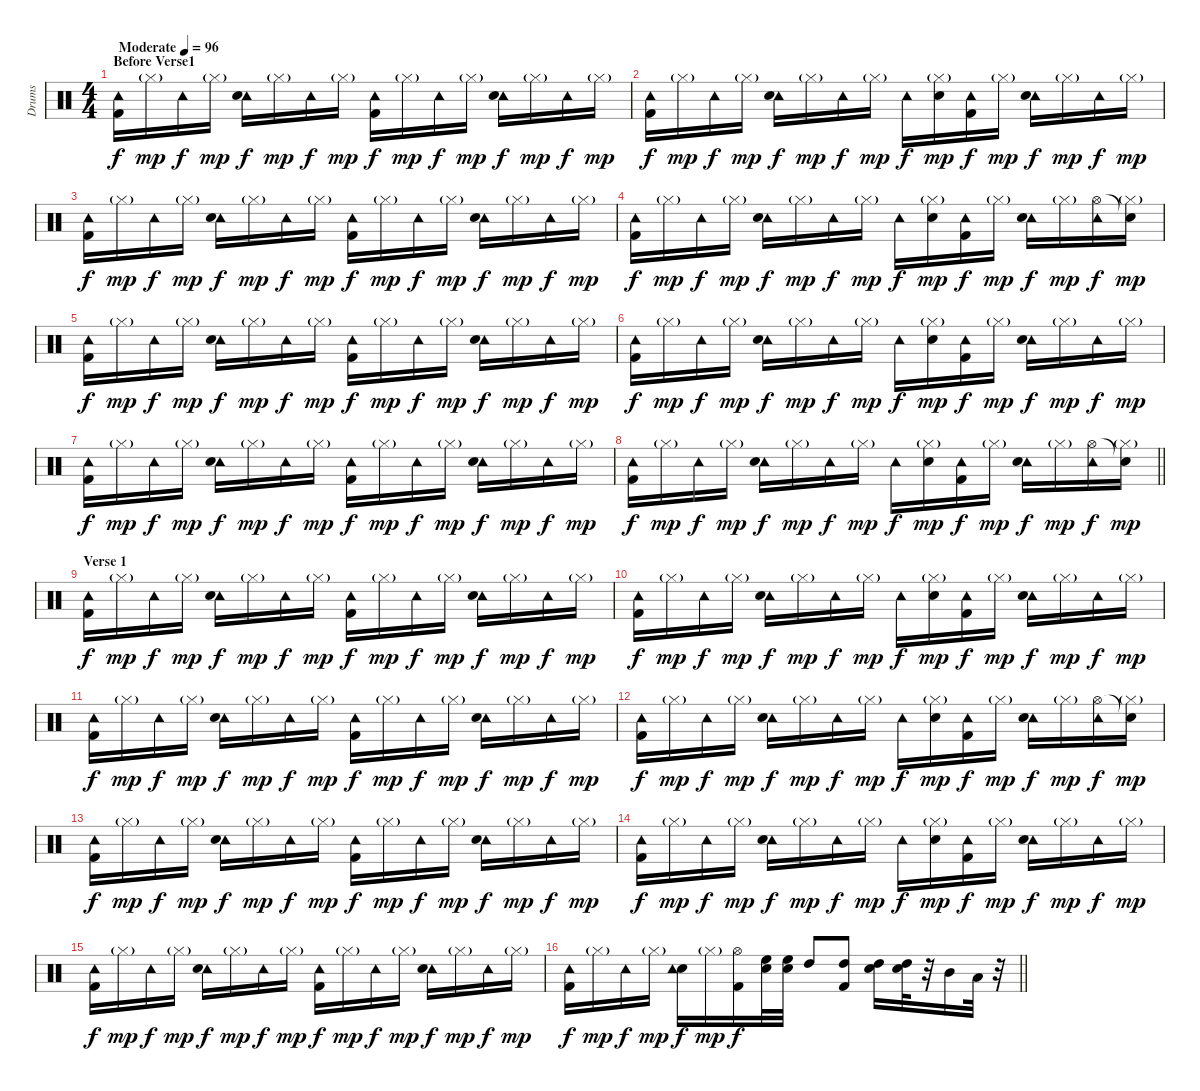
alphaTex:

\track ("Drums" "Drums") {instrument percussion}
\staff {score}
\articulation defaults
\ts (4 4)
\section ("" "Before Verse1")
\tempo (96 "Moderate")
\clef neutral
\ks c
("Tambourine (hit)" "Kick (hit) 2").16{dy f} "Hi-Hat (closed)"{g}.16{dy mp} "Tambourine (hit)".16{dy f} "Hi-Hat (closed)"{g}.16{dy mp} ("Tambourine (hit)" "Snare (hit) 2").16{dy f} "Hi-Hat (closed)"{g}.16{dy mp} "Tambourine (hit)".16{dy f} "Hi-Hat (closed)"{g}.16{dy mp} ("Tambourine (hit)" "Kick (hit) 2").16{dy f} "Hi-Hat (closed)"{g}.16{dy mp} "Tambourine (hit)".16{dy f} "Hi-Hat (closed)"{g}.16{dy mp} ("Tambourine (hit)" "Snare (hit) 2").16{dy f} "Hi-Hat (closed)"{g}.16{dy mp} "Tambourine (hit)".16{dy f} "Hi-Hat (closed)"{g}.16{dy mp} |
("Tambourine (hit)" "Kick (hit) 2").16{dy f} "Hi-Hat (closed)"{g}.16{dy mp} "Tambourine (hit)".16{dy f} "Hi-Hat (closed)"{g}.16{dy mp} ("Tambourine (hit)" "Snare (hit) 2").16{dy f} "Hi-Hat (closed)"{g}.16{dy mp} "Tambourine (hit)".16{dy f} "Hi-Hat (closed)"{g}.16{dy mp} "Tambourine (hit)".16{dy f} ("Hi-Hat (closed)"{g} "Snare (hit) 2").16{dy mp} ("Tambourine (hit)" "Kick (hit) 2").16{dy f} "Hi-Hat (closed)"{g}.16{dy mp} ("Tambourine (hit)" "Snare (hit) 2").16{dy f} "Hi-Hat (closed)"{g}.16{dy mp} "Tambourine (hit)".16{dy f} "Hi-Hat (closed)"{g}.16{dy mp} |
("Tambourine (hit)" "Kick (hit) 2").16{dy f} "Hi-Hat (closed)"{g}.16{dy mp} "Tambourine (hit)".16{dy f} "Hi-Hat (closed)"{g}.16{dy mp} ("Tambourine (hit)" "Snare (hit) 2").16{dy f} "Hi-Hat (closed)"{g}.16{dy mp} "Tambourine (hit)".16{dy f} "Hi-Hat (closed)"{g}.16{dy mp} ("Tambourine (hit)" "Kick (hit) 2").16{dy f} "Hi-Hat (closed)"{g}.16{dy mp} "Tambourine (hit)".16{dy f} "Hi-Hat (closed)"{g}.16{dy mp} ("Tambourine (hit)" "Snare (hit) 2").16{dy f} "Hi-Hat (closed)"{g}.16{dy mp} "Tambourine (hit)".16{dy f} "Hi-Hat (closed)"{g}.16{dy mp} |
("Tambourine (hit)" "Kick (hit) 2").16{dy f} "Hi-Hat (closed)"{g}.16{dy mp} "Tambourine (hit)".16{dy f} "Hi-Hat (closed)"{g}.16{dy mp} ("Tambourine (hit)" "Snare (hit) 2").16{dy f} "Hi-Hat (closed)"{g}.16{dy mp} "Tambourine (hit)".16{dy f} "Hi-Hat (closed)"{g}.16{dy mp} "Tambourine (hit)".16{dy f} ("Hi-Hat (closed)"{g} "Snare (hit) 2").16{dy mp} ("Tambourine (hit)" "Kick (hit) 2").16{dy f} "Hi-Hat (closed)"{g}.16{dy mp} ("Tambourine (hit)" "Snare (hit) 2").16{dy f} "Hi-Hat (closed)"{g}.16{dy mp} ("Tambourine (hit)" "Hi-Hat (open)").16{dy f} ("Hi-Hat (closed)"{g} "Snare (hit)"{t}).16{dy mp} |
("Tambourine (hit)" "Kick (hit) 2").16{dy f} "Hi-Hat (closed)"{g}.16{dy mp} "Tambourine (hit)".16{dy f} "Hi-Hat (closed)"{g}.16{dy mp} ("Tambourine (hit)" "Snare (hit) 2").16{dy f} "Hi-Hat (closed)"{g}.16{dy mp} "Tambourine (hit)".16{dy f} "Hi-Hat (closed)"{g}.16{dy mp} ("Tambourine (hit)" "Kick (hit) 2").16{dy f} "Hi-Hat (closed)"{g}.16{dy mp} "Tambourine (hit)".16{dy f} "Hi-Hat (closed)"{g}.16{dy mp} ("Tambourine (hit)" "Snare (hit) 2").16{dy f} "Hi-Hat (closed)"{g}.16{dy mp} "Tambourine (hit)".16{dy f} "Hi-Hat (closed)"{g}.16{dy mp} |
("Tambourine (hit)" "Kick (hit) 2").16{dy f} "Hi-Hat (closed)"{g}.16{dy mp} "Tambourine (hit)".16{dy f} "Hi-Hat (closed)"{g}.16{dy mp} ("Tambourine (hit)" "Snare (hit) 2").16{dy f} "Hi-Hat (closed)"{g}.16{dy mp} "Tambourine (hit)".16{dy f} "Hi-Hat (closed)"{g}.16{dy mp} "Tambourine (hit)".16{dy f} ("Hi-Hat (closed)"{g} "Snare (hit) 2").16{dy mp} ("Tambourine (hit)" "Kick (hit) 2").16{dy f} "Hi-Hat (closed)"{g}.16{dy mp} ("Tambourine (hit)" "Snare (hit) 2").16{dy f} "Hi-Hat (closed)"{g}.16{dy mp} "Tambourine (hit)".16{dy f} "Hi-Hat (closed)"{g}.16{dy mp} |
("Tambourine (hit)" "Kick (hit) 2").16{dy f} "Hi-Hat (closed)"{g}.16{dy mp} "Tambourine (hit)".16{dy f} "Hi-Hat (closed)"{g}.16{dy mp} ("Tambourine (hit)" "Snare (hit) 2").16{dy f} "Hi-Hat (closed)"{g}.16{dy mp} "Tambourine (hit)".16{dy f} "Hi-Hat (closed)"{g}.16{dy mp} ("Tambourine (hit)" "Kick (hit) 2").16{dy f} "Hi-Hat (closed)"{g}.16{dy mp} "Tambourine (hit)".16{dy f} "Hi-Hat (closed)"{g}.16{dy mp} ("Tambourine (hit)" "Snare (hit) 2").16{dy f} "Hi-Hat (closed)"{g}.16{dy mp} "Tambourine (hit)".16{dy f} "Hi-Hat (closed)"{g}.16{dy mp} |
\barLineRight lightlight
("Tambourine (hit)" "Kick (hit) 2").16{dy f} "Hi-Hat (closed)"{g}.16{dy mp} "Tambourine (hit)".16{dy f} "Hi-Hat (closed)"{g}.16{dy mp} ("Tambourine (hit)" "Snare (hit) 2").16{dy f} "Hi-Hat (closed)"{g}.16{dy mp} "Tambourine (hit)".16{dy f} "Hi-Hat (closed)"{g}.16{dy mp} "Tambourine (hit)".16{dy f} ("Hi-Hat (closed)"{g} "Snare (hit) 2").16{dy mp} ("Tambourine (hit)" "Kick (hit) 2").16{dy f} "Hi-Hat (closed)"{g}.16{dy mp} ("Tambourine (hit)" "Snare (hit) 2").16{dy f} "Hi-Hat (closed)"{g}.16{dy mp} ("Tambourine (hit)" "Hi-Hat (open)").16{dy f} ("Hi-Hat (closed)"{g} "Snare (hit)"{t}).16{dy mp} |
\section ("" "Verse 1")
("Tambourine (hit)" "Kick (hit) 2").16{dy f} "Hi-Hat (closed)"{g}.16{dy mp} "Tambourine (hit)".16{dy f} "Hi-Hat (closed)"{g}.16{dy mp} ("Tambourine (hit)" "Snare (hit) 2").16{dy f} "Hi-Hat (closed)"{g}.16{dy mp} "Tambourine (hit)".16{dy f} "Hi-Hat (closed)"{g}.16{dy mp} ("Tambourine (hit)" "Kick (hit) 2").16{dy f} "Hi-Hat (closed)"{g}.16{dy mp} "Tambourine (hit)".16{dy f} "Hi-Hat (closed)"{g}.16{dy mp} ("Tambourine (hit)" "Snare (hit) 2").16{dy f} "Hi-Hat (closed)"{g}.16{dy mp} "Tambourine (hit)".16{dy f} "Hi-Hat (closed)"{g}.16{dy mp} |
("Tambourine (hit)" "Kick (hit) 2").16{dy f} "Hi-Hat (closed)"{g}.16{dy mp} "Tambourine (hit)".16{dy f} "Hi-Hat (closed)"{g}.16{dy mp} ("Tambourine (hit)" "Snare (hit) 2").16{dy f} "Hi-Hat (closed)"{g}.16{dy mp} "Tambourine (hit)".16{dy f} "Hi-Hat (closed)"{g}.16{dy mp} "Tambourine (hit)".16{dy f} ("Hi-Hat (closed)"{g} "Snare (hit) 2").16{dy mp} ("Tambourine (hit)" "Kick (hit) 2").16{dy f} "Hi-Hat (closed)"{g}.16{dy mp} ("Tambourine (hit)" "Snare (hit) 2").16{dy f} "Hi-Hat (closed)"{g}.16{dy mp} "Tambourine (hit)".16{dy f} "Hi-Hat (closed)"{g}.16{dy mp} |
("Tambourine (hit)" "Kick (hit) 2").16{dy f} "Hi-Hat (closed)"{g}.16{dy mp} "Tambourine (hit)".16{dy f} "Hi-Hat (closed)"{g}.16{dy mp} ("Tambourine (hit)" "Snare (hit) 2").16{dy f} "Hi-Hat (closed)"{g}.16{dy mp} "Tambourine (hit)".16{dy f} "Hi-Hat (closed)"{g}.16{dy mp} ("Tambourine (hit)" "Kick (hit) 2").16{dy f} "Hi-Hat (closed)"{g}.16{dy mp} "Tambourine (hit)".16{dy f} "Hi-Hat (closed)"{g}.16{dy mp} ("Tambourine (hit)" "Snare (hit) 2").16{dy f} "Hi-Hat (closed)"{g}.16{dy mp} "Tambourine (hit)".16{dy f} "Hi-Hat (closed)"{g}.16{dy mp} |
("Tambourine (hit)" "Kick (hit) 2").16{dy f} "Hi-Hat (closed)"{g}.16{dy mp} "Tambourine (hit)".16{dy f} "Hi-Hat (closed)"{g}.16{dy mp} ("Tambourine (hit)" "Snare (hit) 2").16{dy f} "Hi-Hat (closed)"{g}.16{dy mp} "Tambourine (hit)".16{dy f} "Hi-Hat (closed)"{g}.16{dy mp} "Tambourine (hit)".16{dy f} ("Hi-Hat (closed)"{g} "Snare (hit) 2").16{dy mp} ("Tambourine (hit)" "Kick (hit) 2").16{dy f} "Hi-Hat (closed)"{g}.16{dy mp} ("Tambourine (hit)" "Snare (hit) 2").16{dy f} "Hi-Hat (closed)"{g}.16{dy mp} ("Tambourine (hit)" "Hi-Hat (open)").16{dy f} ("Hi-Hat (closed)"{g} "Snare (hit)"{t}).16{dy mp} |
("Tambourine (hit)" "Kick (hit) 2").16{dy f} "Hi-Hat (closed)"{g}.16{dy mp} "Tambourine (hit)".16{dy f} "Hi-Hat (closed)"{g}.16{dy mp} ("Tambourine (hit)" "Snare (hit) 2").16{dy f} "Hi-Hat (closed)"{g}.16{dy mp} "Tambourine (hit)".16{dy f} "Hi-Hat (closed)"{g}.16{dy mp} ("Tambourine (hit)" "Kick (hit) 2").16{dy f} "Hi-Hat (closed)"{g}.16{dy mp} "Tambourine (hit)".16{dy f} "Hi-Hat (closed)"{g}.16{dy mp} ("Tambourine (hit)" "Snare (hit) 2").16{dy f} "Hi-Hat (closed)"{g}.16{dy mp} "Tambourine (hit)".16{dy f} "Hi-Hat (closed)"{g}.16{dy mp} |
("Tambourine (hit)" "Kick (hit) 2").16{dy f} "Hi-Hat (closed)"{g}.16{dy mp} "Tambourine (hit)".16{dy f} "Hi-Hat (closed)"{g}.16{dy mp} ("Tambourine (hit)" "Snare (hit) 2").16{dy f} "Hi-Hat (closed)"{g}.16{dy mp} "Tambourine (hit)".16{dy f} "Hi-Hat (closed)"{g}.16{dy mp} "Tambourine (hit)".16{dy f} ("Hi-Hat (closed)"{g} "Snare (hit) 2").16{dy mp} ("Tambourine (hit)" "Kick (hit) 2").16{dy f} "Hi-Hat (closed)"{g}.16{dy mp} ("Tambourine (hit)" "Snare (hit) 2").16{dy f} "Hi-Hat (closed)"{g}.16{dy mp} "Tambourine (hit)".16{dy f} "Hi-Hat (closed)"{g}.16{dy mp} |
("Tambourine (hit)" "Kick (hit) 2").16{dy f} "Hi-Hat (closed)"{g}.16{dy mp} "Tambourine (hit)".16{dy f} "Hi-Hat (closed)"{g}.16{dy mp} ("Tambourine (hit)" "Snare (hit) 2").16{dy f} "Hi-Hat (closed)"{g}.16{dy mp} "Tambourine (hit)".16{dy f} "Hi-Hat (closed)"{g}.16{dy mp} ("Tambourine (hit)" "Kick (hit) 2").16{dy f} "Hi-Hat (closed)"{g}.16{dy mp} "Tambourine (hit)".16{dy f} "Hi-Hat (closed)"{g}.16{dy mp} ("Tambourine (hit)" "Snare (hit) 2").16{dy f} "Hi-Hat (closed)"{g}.16{dy mp} "Tambourine (hit)".16{dy f} "Hi-Hat (closed)"{g}.16{dy mp} |
\barLineRight lightlight
("Kick (hit) 2" "Tambourine (hit)").16{dy f} "Hi-Hat (closed)"{g}.16{dy mp} "Tambourine (hit)".16{dy f} "Hi-Hat (closed)"{g}.16{dy mp} ("Snare (hit) 2" "Tambourine (hit)").16{dy f} "Hi-Hat (closed)"{g}.16{dy mp} ("Kick (hit) 2" "Hi-Hat (open)").16{dy f} ("High Floor Tom (hit)" "Electric Snare (hit)").32 ("High Floor Tom (hit)" "Electric Snare (hit)").32 "High Tom (hit)".8 ("High Tom (hit)" "Kick (hit) 2").8 ("High Tom (hit)" "Electric Snare (hit)").16 ("High Tom (hit)" "Electric Snare (hit)").32 r.32 "Mid Tom (hit)".16 "Low Tom (hit)".32 r.32
